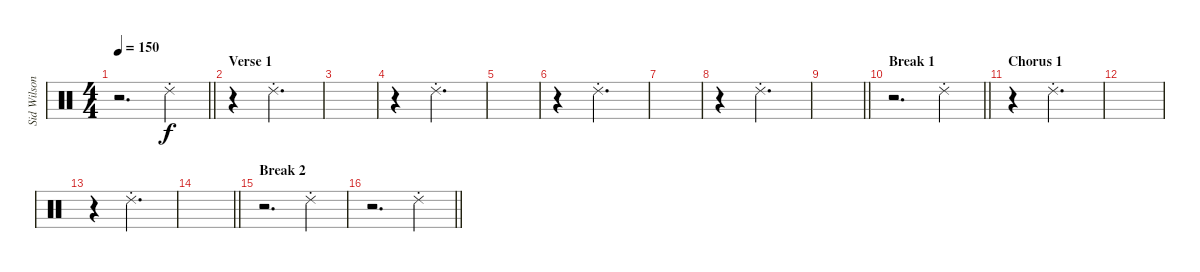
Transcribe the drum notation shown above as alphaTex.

\track ("Sid Wilson" "Sid Wilson") {instrument percussion}
\staff {score}
\articulation defaults
\ts (4 4)
\tempo 150
\clef neutral
\barLineRight lightlight
\ks c
r.2{d dy f} "Ride (choke) 2".4 |
\section ("" "Verse 1")
r.4 "Ride (choke) 2".2{d} |
|
r.4 "Ride (choke) 2".2{d} |
|
r.4 "Ride (choke) 2".2{d} |
|
r.4 "Ride (choke) 2".2{d} |
\barLineRight lightlight
|
\section ("" "Break 1")
\barLineRight lightlight
r.2{d} "Ride (choke) 2".4 |
\section ("" "Chorus 1")
r.4 "Ride (choke) 2".2{d} |
|
r.4 "Ride (choke) 2".2{d} |
\barLineRight lightlight
|
\section ("" "Break 2")
r.2{d} "Ride (choke) 2".4 |
\barLineRight lightlight
r.2{d} "Ride (choke) 2".4
